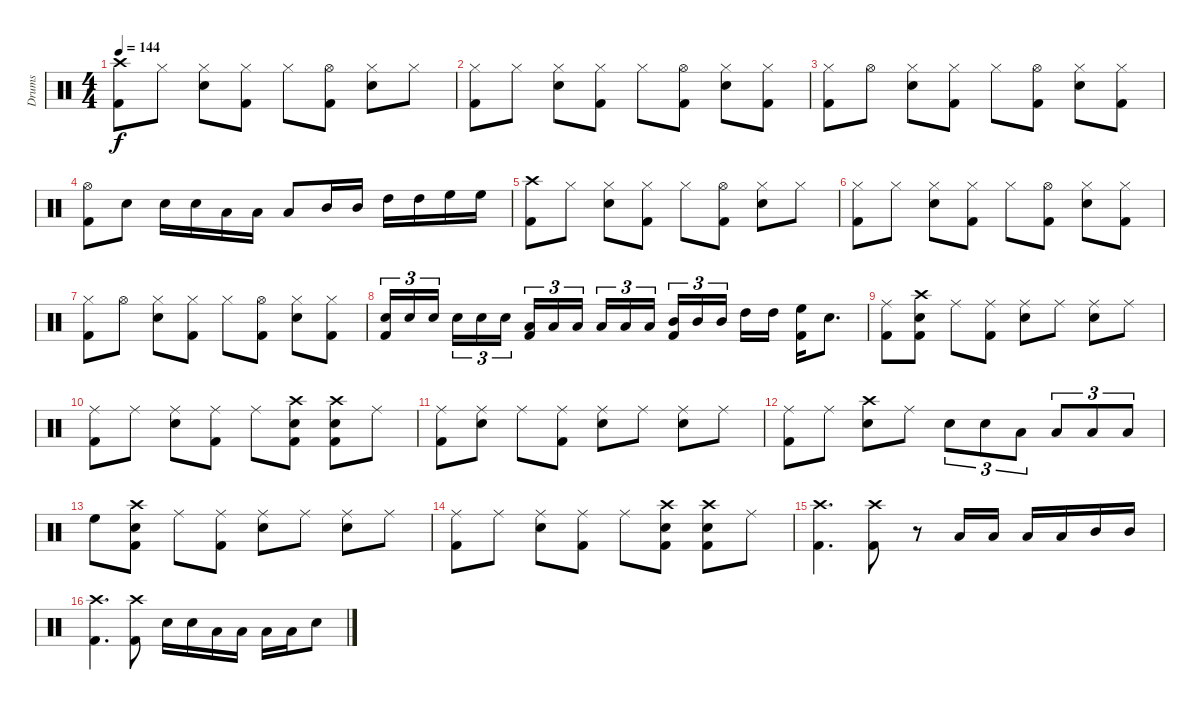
\track ("Drums" "Drums") {instrument percussion}
\staff {score}
\articulation defaults
\ts (4 4)
\tempo 144
\clef neutral
\ks c
("Crash high (hit)" "Kick (hit) 2").8{dy f} "Hi-Hat (closed)".8 ("Hi-Hat (closed)" "Snare (hit) 2").8 ("Hi-Hat (closed)" "Kick (hit) 2").8 "Hi-Hat (closed)".8 ("Hi-Hat (open)" "Kick (hit) 2").8 ("Hi-Hat (closed)" "Snare (hit) 2").8 "Hi-Hat (closed)".8 |
("Hi-Hat (closed)" "Kick (hit) 2").8 "Hi-Hat (closed)".8 ("Hi-Hat (closed)" "Snare (hit) 2").8 ("Hi-Hat (closed)" "Kick (hit) 2").8 "Hi-Hat (closed)".8 ("Hi-Hat (open)" "Kick (hit) 2").8 ("Hi-Hat (closed)" "Snare (hit) 2").8 ("Hi-Hat (closed)" "Kick (hit) 2").8 |
("Hi-Hat (closed)" "Kick (hit) 2").8 "Hi-Hat (open)".8 ("Hi-Hat (closed)" "Snare (hit) 2").8 ("Hi-Hat (closed)" "Kick (hit) 2").8 "Hi-Hat (closed)".8 ("Hi-Hat (open)" "Kick (hit) 2").8 ("Hi-Hat (closed)" "Snare (hit) 2").8 ("Hi-Hat (closed)" "Kick (hit) 2").8 |
("Hi-Hat (open)" "Kick (hit) 2").8 "Snare (hit) 2".8 "Snare (hit) 2".16 "Snare (hit) 2".16 "Low Floor Tom (hit)".16 "Low Floor Tom (hit)".16 "Low Tom (hit)".8 "Mid Tom (hit)".16 "Mid Tom (hit)".16 "High Tom (hit)".16 "High Tom (hit)".16 "High Floor Tom (hit)".16 "High Floor Tom (hit)".16 |
("Crash high (hit)" "Kick (hit) 2").8 "Hi-Hat (closed)".8 ("Hi-Hat (closed)" "Snare (hit) 2").8 ("Hi-Hat (closed)" "Kick (hit) 2").8 "Hi-Hat (closed)".8 ("Hi-Hat (open)" "Kick (hit) 2").8 ("Hi-Hat (closed)" "Snare (hit) 2").8 "Hi-Hat (closed)".8 |
("Hi-Hat (closed)" "Kick (hit) 2").8 "Hi-Hat (closed)".8 ("Hi-Hat (closed)" "Snare (hit) 2").8 ("Hi-Hat (closed)" "Kick (hit) 2").8 "Hi-Hat (closed)".8 ("Hi-Hat (open)" "Kick (hit) 2").8 ("Hi-Hat (closed)" "Snare (hit) 2").8 ("Hi-Hat (closed)" "Kick (hit) 2").8 |
("Hi-Hat (closed)" "Kick (hit) 2").8 "Hi-Hat (open)".8 ("Hi-Hat (closed)" "Snare (hit) 2").8 ("Hi-Hat (closed)" "Kick (hit) 2").8 "Hi-Hat (closed)".8 ("Hi-Hat (open)" "Kick (hit) 2").8 ("Hi-Hat (closed)" "Snare (hit) 2").8 ("Hi-Hat (closed)" "Kick (hit) 2").8 |
("Snare (hit) 2" "Kick (hit) 2").16{tu (3 2)} "Snare (hit) 2".16{tu (3 2)} "Snare (hit) 2".16{tu (3 2) beam splitsecondary} "Snare (hit) 2".16{tu (3 2)} "Snare (hit) 2".16{tu (3 2)} "Snare (hit) 2".16{tu (3 2)} ("Low Floor Tom (hit)" "Kick (hit) 2").16{tu (3 2)} "Low Floor Tom (hit)".16{tu (3 2)} "Low Floor Tom (hit)".16{tu (3 2) beam splitsecondary} "Low Tom (hit)".16{tu (3 2)} "Low Tom (hit)".16{tu (3 2)} "Low Tom (hit)".16{tu (3 2)} ("Mid Tom (hit)" "Kick (hit) 2").16{tu (3 2)} "Mid Tom (hit)".16{tu (3 2)} "Mid Tom (hit)".16{tu (3 2) beam splitsecondary} "High Tom (hit)".16 "High Tom (hit)".16 ("High Floor Tom (hit)" "Kick (hit) 2").16 "Snare (hit) 2".8{d} |
("Ride (middle)" "Kick (hit) 2").8 ("Crash high (hit)" "Snare (hit) 2" "Kick (hit) 2").8 "Ride (middle)".8 ("Ride (middle)" "Kick (hit) 2").8 ("Ride (middle)" "Snare (hit) 2").8 "Ride (middle)".8 ("Ride (middle)" "Snare (hit) 2").8 "Ride (middle)".8 |
("Ride (middle)" "Kick (hit) 2").8 "Ride (middle)".8 ("Ride (middle)" "Snare (hit) 2").8 ("Ride (middle)" "Kick (hit) 2").8 "Ride (middle)".8 ("Crash high (hit)" "Snare (hit) 2" "Kick (hit) 2").8 ("Crash high (hit)" "Snare (hit) 2" "Kick (hit) 2").8 "Ride (middle)".8 |
("Ride (middle)" "Kick (hit) 2").8 ("Ride (middle)" "Snare (hit) 2").8 "Ride (middle)".8 ("Ride (middle)" "Kick (hit) 2").8 ("Ride (middle)" "Snare (hit) 2").8 "Ride (middle)".8 ("Ride (middle)" "Snare (hit) 2").8 "Ride (middle)".8 |
("Ride (middle)" "Kick (hit) 2").8 "Ride (middle)".8 ("Crash high (hit)" "Snare (hit) 2").8 "Ride (middle)".8 "Snare (hit) 2".8{tu (3 2)} "Snare (hit) 2".8{tu (3 2)} "Low Floor Tom (hit)".8{tu (3 2)} "Low Floor Tom (hit)".8{tu (3 2)} "Low Tom (hit)".8{tu (3 2)} "Low Tom (hit)".8{tu (3 2)} |
"High Floor Tom (hit)".8 ("Crash high (hit)" "Snare (hit) 2" "Kick (hit) 2").8 "Ride (middle)".8 ("Ride (middle)" "Kick (hit) 2").8 ("Ride (middle)" "Snare (hit) 2").8 "Ride (middle)".8 ("Ride (middle)" "Snare (hit) 2").8 "Ride (middle)".8 |
("Ride (middle)" "Kick (hit) 2").8 "Ride (middle)".8 ("Ride (middle)" "Snare (hit) 2").8 ("Ride (middle)" "Kick (hit) 2").8 "Ride (middle)".8 ("Crash high (hit)" "Snare (hit) 2" "Kick (hit) 2").8 ("Crash high (hit)" "Snare (hit) 2" "Kick (hit) 2").8 "Ride (middle)".8 |
("Crash high (hit)" "Kick (hit) 2").4{d} ("Crash high (hit)" "Kick (hit) 2").8 r.8 "Low Floor Tom (hit)".16 "Low Floor Tom (hit)".16 "Low Tom (hit)".16 "Low Tom (hit)".16 "Mid Tom (hit)".16 "Mid Tom (hit)".16 |
("Crash high (hit)" "Kick (hit) 2").4{d} ("Crash high (hit)" "Kick (hit) 2").8 "Snare (hit) 2".16 "Snare (hit) 2".16 "Low Floor Tom (hit)".16 "Low Floor Tom (hit)".16 "Low Tom (hit)".16 "Low Tom (hit)".16 "Snare (hit) 2".8
